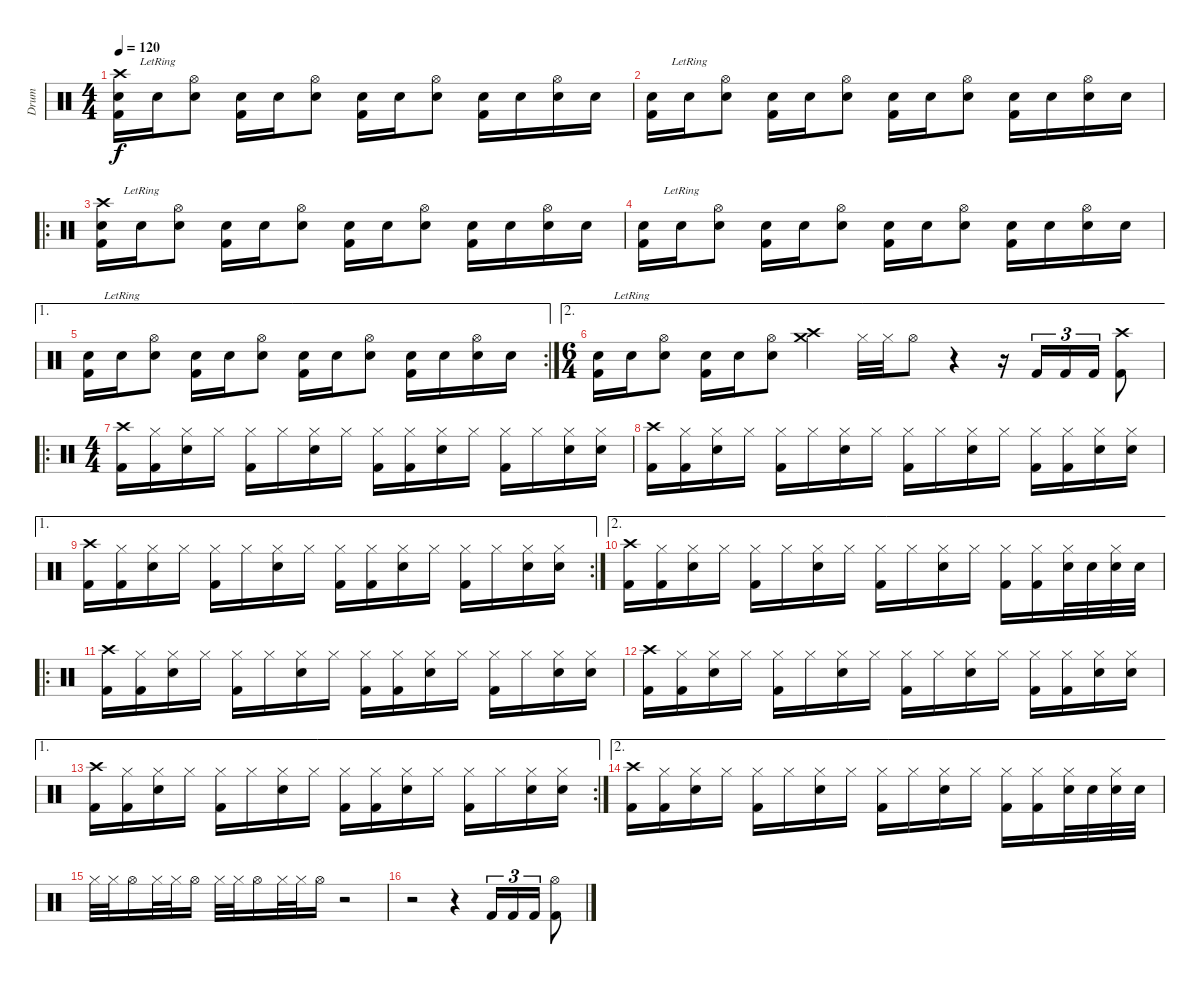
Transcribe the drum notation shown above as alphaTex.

\track ("Drum" "Drum") {instrument percussion}
\staff {score}
\articulation defaults
\ts (4 4)
\tempo 120
\clef neutral
\ks c
("Electric Snare (hit)" "Kick (hit) 2" "Crash high (hit)").16{dy f} "Electric Snare (hit)"{lr}.16 ("Electric Snare (hit)" "Hi-Hat (open)").8 ("Electric Snare (hit)" "Kick (hit) 2").16 "Electric Snare (hit)".16 ("Electric Snare (hit)" "Hi-Hat (open)").8 ("Electric Snare (hit)" "Kick (hit) 2").16 "Electric Snare (hit)".16 ("Electric Snare (hit)" "Hi-Hat (open)").8 ("Electric Snare (hit)" "Kick (hit) 2").16 "Electric Snare (hit)".16 ("Electric Snare (hit)" "Hi-Hat (open)").16 "Electric Snare (hit)".16 |
("Electric Snare (hit)" "Kick (hit) 2").16 "Electric Snare (hit)"{lr}.16 ("Electric Snare (hit)" "Hi-Hat (open)").8 ("Electric Snare (hit)" "Kick (hit) 2").16 "Electric Snare (hit)".16 ("Electric Snare (hit)" "Hi-Hat (open)").8 ("Electric Snare (hit)" "Kick (hit) 2").16 "Electric Snare (hit)".16 ("Electric Snare (hit)" "Hi-Hat (open)").8 ("Electric Snare (hit)" "Kick (hit) 2").16 "Electric Snare (hit)".16 ("Electric Snare (hit)" "Hi-Hat (open)").16 "Electric Snare (hit)".16 |
\ro
("Electric Snare (hit)" "Kick (hit) 2" "Crash high (hit)").16 "Electric Snare (hit)"{lr}.16 ("Electric Snare (hit)" "Hi-Hat (open)").8 ("Electric Snare (hit)" "Kick (hit) 2").16 "Electric Snare (hit)".16 ("Electric Snare (hit)" "Hi-Hat (open)").8 ("Electric Snare (hit)" "Kick (hit) 2").16 "Electric Snare (hit)".16 ("Electric Snare (hit)" "Hi-Hat (open)").8 ("Electric Snare (hit)" "Kick (hit) 2").16 "Electric Snare (hit)".16 ("Electric Snare (hit)" "Hi-Hat (open)").16 "Electric Snare (hit)".16 |
("Electric Snare (hit)" "Kick (hit) 2").16 "Electric Snare (hit)"{lr}.16 ("Electric Snare (hit)" "Hi-Hat (open)").8 ("Electric Snare (hit)" "Kick (hit) 2").16 "Electric Snare (hit)".16 ("Electric Snare (hit)" "Hi-Hat (open)").8 ("Electric Snare (hit)" "Kick (hit) 2").16 "Electric Snare (hit)".16 ("Electric Snare (hit)" "Hi-Hat (open)").8 ("Electric Snare (hit)" "Kick (hit) 2").16 "Electric Snare (hit)".16 ("Electric Snare (hit)" "Hi-Hat (open)").16 "Electric Snare (hit)".16 |
\ae 1
\rc 2
("Electric Snare (hit)" "Kick (hit) 2").16 "Electric Snare (hit)"{lr}.16 ("Electric Snare (hit)" "Hi-Hat (open)").8 ("Electric Snare (hit)" "Kick (hit) 2").16 "Electric Snare (hit)".16 ("Electric Snare (hit)" "Hi-Hat (open)").8 ("Electric Snare (hit)" "Kick (hit) 2").16 "Electric Snare (hit)".16 ("Electric Snare (hit)" "Hi-Hat (open)").8 ("Electric Snare (hit)" "Kick (hit) 2").16 "Electric Snare (hit)".16 ("Electric Snare (hit)" "Hi-Hat (open)").16 "Electric Snare (hit)".16 |
\ae 2
\ts (6 4)
("Electric Snare (hit)" "Kick (hit) 2").16 "Electric Snare (hit)"{lr}.16 ("Electric Snare (hit)" "Hi-Hat (open)").8 ("Electric Snare (hit)" "Kick (hit) 2").16 "Electric Snare (hit)".16 ("Electric Snare (hit)" "Hi-Hat (open)").8 ("Crash high (hit)" "Crash medium (hit)").4 "Hi-Hat (closed)".32 "Hi-Hat (closed)".32 "Hi-Hat (open)".8 r.4 r.16 "Kick (hit) 2".16{tu (3 2)} "Kick (hit) 2".16{tu (3 2)} "Kick (hit) 2".16{tu (3 2)} ("Crash high (hit)" "Kick (hit) 2").8 |
\ro
\ts (4 4)
("Crash high (hit)" "Kick (hit) 2").16 ("Hi-Hat (closed)" "Kick (hit) 2").16 ("Hi-Hat (closed)" "Electric Snare (hit)").16 "Hi-Hat (closed)".16 ("Hi-Hat (closed)" "Kick (hit) 2").16 "Hi-Hat (closed)".16 ("Hi-Hat (closed)" "Electric Snare (hit)").16 "Hi-Hat (closed)".16 ("Hi-Hat (closed)" "Kick (hit) 2").16 ("Hi-Hat (closed)" "Kick (hit) 2").16 ("Hi-Hat (closed)" "Electric Snare (hit)").16 "Hi-Hat (closed)".16 ("Hi-Hat (closed)" "Kick (hit) 2").16 "Hi-Hat (closed)".16 ("Hi-Hat (closed)" "Electric Snare (hit)").16 ("Hi-Hat (closed)" "Electric Snare (hit)").16 |
("Crash high (hit)" "Kick (hit) 2").16 ("Hi-Hat (closed)" "Kick (hit) 2").16 ("Hi-Hat (closed)" "Electric Snare (hit)").16 "Hi-Hat (closed)".16 ("Hi-Hat (closed)" "Kick (hit) 2").16 "Hi-Hat (closed)".16 ("Hi-Hat (closed)" "Electric Snare (hit)").16 "Hi-Hat (closed)".16 ("Hi-Hat (closed)" "Kick (hit) 2").16 "Hi-Hat (closed)".16 ("Hi-Hat (closed)" "Electric Snare (hit)").16 "Hi-Hat (closed)".16 ("Hi-Hat (closed)" "Kick (hit) 2").16 ("Hi-Hat (closed)" "Kick (hit) 2").16 ("Hi-Hat (closed)" "Electric Snare (hit)").16 ("Hi-Hat (closed)" "Electric Snare (hit)").16 |
\ae 1
\rc 2
("Crash high (hit)" "Kick (hit) 2").16 ("Hi-Hat (closed)" "Kick (hit) 2").16 ("Hi-Hat (closed)" "Electric Snare (hit)").16 "Hi-Hat (closed)".16 ("Hi-Hat (closed)" "Kick (hit) 2").16 "Hi-Hat (closed)".16 ("Hi-Hat (closed)" "Electric Snare (hit)").16 "Hi-Hat (closed)".16 ("Hi-Hat (closed)" "Kick (hit) 2").16 ("Hi-Hat (closed)" "Kick (hit) 2").16 ("Hi-Hat (closed)" "Electric Snare (hit)").16 "Hi-Hat (closed)".16 ("Hi-Hat (closed)" "Kick (hit) 2").16 "Hi-Hat (closed)".16 ("Hi-Hat (closed)" "Electric Snare (hit)").16 ("Hi-Hat (closed)" "Electric Snare (hit)").16 |
\ae 2
("Crash high (hit)" "Kick (hit) 2").16 ("Hi-Hat (closed)" "Kick (hit) 2").16 ("Hi-Hat (closed)" "Electric Snare (hit)").16 "Hi-Hat (closed)".16 ("Hi-Hat (closed)" "Kick (hit) 2").16 "Hi-Hat (closed)".16 ("Hi-Hat (closed)" "Electric Snare (hit)").16 "Hi-Hat (closed)".16 ("Hi-Hat (closed)" "Kick (hit) 2").16 "Hi-Hat (closed)".16 ("Hi-Hat (closed)" "Electric Snare (hit)").16 "Hi-Hat (closed)".16 ("Hi-Hat (closed)" "Kick (hit) 2").16 ("Hi-Hat (closed)" "Kick (hit) 2").16 ("Hi-Hat (closed)" "Electric Snare (hit)").32 "Electric Snare (hit)".32 ("Hi-Hat (closed)" "Electric Snare (hit)").32 "Electric Snare (hit)".32 |
\ro
("Crash high (hit)" "Kick (hit) 2").16 ("Hi-Hat (closed)" "Kick (hit) 2").16 ("Hi-Hat (closed)" "Electric Snare (hit)").16 "Hi-Hat (closed)".16 ("Hi-Hat (closed)" "Kick (hit) 2").16 "Hi-Hat (closed)".16 ("Hi-Hat (closed)" "Electric Snare (hit)").16 "Hi-Hat (closed)".16 ("Hi-Hat (closed)" "Kick (hit) 2").16 ("Hi-Hat (closed)" "Kick (hit) 2").16 ("Hi-Hat (closed)" "Electric Snare (hit)").16 "Hi-Hat (closed)".16 ("Hi-Hat (closed)" "Kick (hit) 2").16 "Hi-Hat (closed)".16 ("Hi-Hat (closed)" "Electric Snare (hit)").16 ("Hi-Hat (closed)" "Electric Snare (hit)").16 |
("Crash high (hit)" "Kick (hit) 2").16 ("Hi-Hat (closed)" "Kick (hit) 2").16 ("Hi-Hat (closed)" "Electric Snare (hit)").16 "Hi-Hat (closed)".16 ("Hi-Hat (closed)" "Kick (hit) 2").16 "Hi-Hat (closed)".16 ("Hi-Hat (closed)" "Electric Snare (hit)").16 "Hi-Hat (closed)".16 ("Hi-Hat (closed)" "Kick (hit) 2").16 "Hi-Hat (closed)".16 ("Hi-Hat (closed)" "Electric Snare (hit)").16 "Hi-Hat (closed)".16 ("Hi-Hat (closed)" "Kick (hit) 2").16 ("Hi-Hat (closed)" "Kick (hit) 2").16 ("Hi-Hat (closed)" "Electric Snare (hit)").16 ("Hi-Hat (closed)" "Electric Snare (hit)").16 |
\ae 1
\rc 2
("Crash high (hit)" "Kick (hit) 2").16 ("Hi-Hat (closed)" "Kick (hit) 2").16 ("Hi-Hat (closed)" "Electric Snare (hit)").16 "Hi-Hat (closed)".16 ("Hi-Hat (closed)" "Kick (hit) 2").16 "Hi-Hat (closed)".16 ("Hi-Hat (closed)" "Electric Snare (hit)").16 "Hi-Hat (closed)".16 ("Hi-Hat (closed)" "Kick (hit) 2").16 ("Hi-Hat (closed)" "Kick (hit) 2").16 ("Hi-Hat (closed)" "Electric Snare (hit)").16 "Hi-Hat (closed)".16 ("Hi-Hat (closed)" "Kick (hit) 2").16 "Hi-Hat (closed)".16 ("Hi-Hat (closed)" "Electric Snare (hit)").16 ("Hi-Hat (closed)" "Electric Snare (hit)").16 |
\ae 2
("Crash high (hit)" "Kick (hit) 2").16 ("Hi-Hat (closed)" "Kick (hit) 2").16 ("Hi-Hat (closed)" "Electric Snare (hit)").16 "Hi-Hat (closed)".16 ("Hi-Hat (closed)" "Kick (hit) 2").16 "Hi-Hat (closed)".16 ("Hi-Hat (closed)" "Electric Snare (hit)").16 "Hi-Hat (closed)".16 ("Hi-Hat (closed)" "Kick (hit) 2").16 "Hi-Hat (closed)".16 ("Hi-Hat (closed)" "Electric Snare (hit)").16 "Hi-Hat (closed)".16 ("Hi-Hat (closed)" "Kick (hit) 2").16 ("Hi-Hat (closed)" "Kick (hit) 2").16 ("Hi-Hat (closed)" "Electric Snare (hit)").32 "Electric Snare (hit)".32 ("Hi-Hat (closed)" "Electric Snare (hit)").32 "Electric Snare (hit)".32 |
"Hi-Hat (closed)".32 "Hi-Hat (closed)".32 "Hi-Hat (open)".16 "Hi-Hat (closed)".32 "Hi-Hat (closed)".32 "Hi-Hat (open)".16 "Hi-Hat (closed)".32 "Hi-Hat (closed)".32 "Hi-Hat (open)".16 "Hi-Hat (closed)".32 "Hi-Hat (closed)".32 "Hi-Hat (open)".16 r.2 |
r.2 r.4 "Kick (hit) 2".16{tu (3 2)} "Kick (hit) 2".16{tu (3 2)} "Kick (hit) 2".16{tu (3 2)} ("Hi-Hat (open)" "Kick (hit) 2").8
